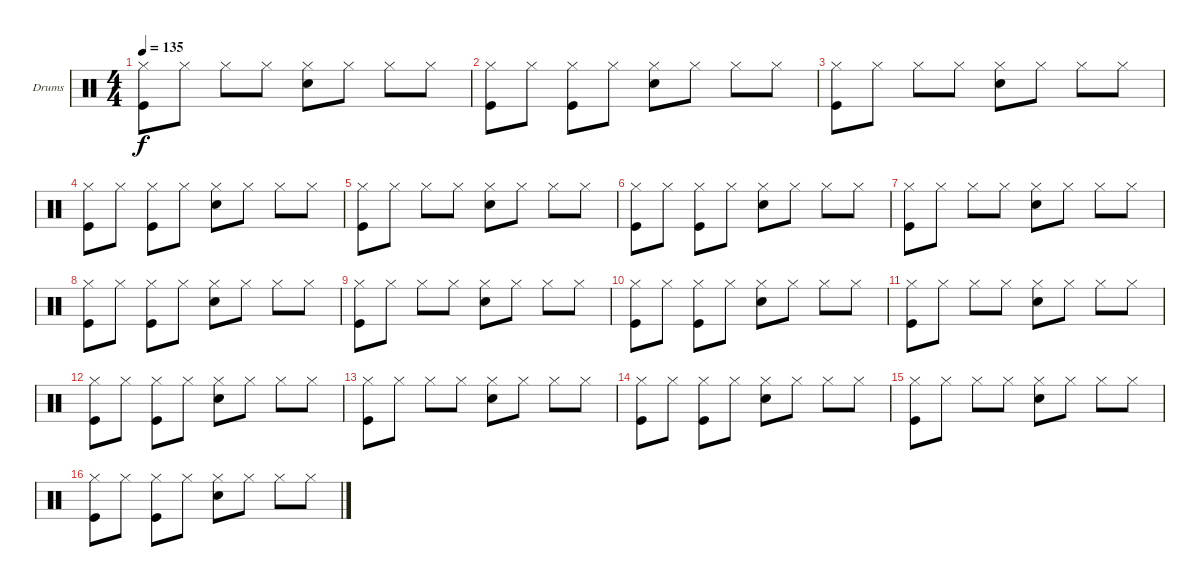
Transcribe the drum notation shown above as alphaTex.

\defaultSystemsLayout 4
\bracketExtendMode groupsimilarinstruments
\firstSystemTrackNameOrientation horizontal
\otherSystemsTrackNameOrientation horizontal
\track ("Drumkit" "Drums") {instrument percussion}
\staff {score}
\articulation defaults
\ts (4 4)
\tempo 135
\clef neutral
\ks c
("Kick (hit)" "Hi-Hat (closed)").8{dy f} "Hi-Hat (closed)".8 "Hi-Hat (closed)".8 "Hi-Hat (closed)".8 ("Hi-Hat (closed)" "Snare (hit) 2").8 "Hi-Hat (closed)".8 "Hi-Hat (closed)".8 "Hi-Hat (closed)".8 |
("Hi-Hat (closed)" "Kick (hit)").8 "Hi-Hat (closed)".8 ("Hi-Hat (closed)" "Kick (hit)").8 "Hi-Hat (closed)".8 ("Hi-Hat (closed)" "Snare (hit) 2").8 "Hi-Hat (closed)".8 "Hi-Hat (closed)".8 "Hi-Hat (closed)".8 |
("Kick (hit)" "Hi-Hat (closed)").8 "Hi-Hat (closed)".8 "Hi-Hat (closed)".8 "Hi-Hat (closed)".8 ("Hi-Hat (closed)" "Snare (hit) 2").8 "Hi-Hat (closed)".8 "Hi-Hat (closed)".8 "Hi-Hat (closed)".8 |
("Hi-Hat (closed)" "Kick (hit)").8 "Hi-Hat (closed)".8 ("Hi-Hat (closed)" "Kick (hit)").8 "Hi-Hat (closed)".8 ("Hi-Hat (closed)" "Snare (hit) 2").8 "Hi-Hat (closed)".8 "Hi-Hat (closed)".8 "Hi-Hat (closed)".8 |
("Kick (hit)" "Hi-Hat (closed)").8 "Hi-Hat (closed)".8 "Hi-Hat (closed)".8 "Hi-Hat (closed)".8 ("Hi-Hat (closed)" "Snare (hit) 2").8 "Hi-Hat (closed)".8 "Hi-Hat (closed)".8 "Hi-Hat (closed)".8 |
("Hi-Hat (closed)" "Kick (hit)").8 "Hi-Hat (closed)".8 ("Hi-Hat (closed)" "Kick (hit)").8 "Hi-Hat (closed)".8 ("Hi-Hat (closed)" "Snare (hit) 2").8 "Hi-Hat (closed)".8 "Hi-Hat (closed)".8 "Hi-Hat (closed)".8 |
("Kick (hit)" "Hi-Hat (closed)").8 "Hi-Hat (closed)".8 "Hi-Hat (closed)".8 "Hi-Hat (closed)".8 ("Hi-Hat (closed)" "Snare (hit) 2").8 "Hi-Hat (closed)".8 "Hi-Hat (closed)".8 "Hi-Hat (closed)".8 |
("Hi-Hat (closed)" "Kick (hit)").8 "Hi-Hat (closed)".8 ("Hi-Hat (closed)" "Kick (hit)").8 "Hi-Hat (closed)".8 ("Hi-Hat (closed)" "Snare (hit) 2").8 "Hi-Hat (closed)".8 "Hi-Hat (closed)".8 "Hi-Hat (closed)".8 |
("Kick (hit)" "Hi-Hat (closed)").8 "Hi-Hat (closed)".8 "Hi-Hat (closed)".8 "Hi-Hat (closed)".8 ("Hi-Hat (closed)" "Snare (hit) 2").8 "Hi-Hat (closed)".8 "Hi-Hat (closed)".8 "Hi-Hat (closed)".8 |
("Hi-Hat (closed)" "Kick (hit)").8 "Hi-Hat (closed)".8 ("Hi-Hat (closed)" "Kick (hit)").8 "Hi-Hat (closed)".8 ("Hi-Hat (closed)" "Snare (hit) 2").8 "Hi-Hat (closed)".8 "Hi-Hat (closed)".8 "Hi-Hat (closed)".8 |
("Kick (hit)" "Hi-Hat (closed)").8 "Hi-Hat (closed)".8 "Hi-Hat (closed)".8 "Hi-Hat (closed)".8 ("Hi-Hat (closed)" "Snare (hit) 2").8 "Hi-Hat (closed)".8 "Hi-Hat (closed)".8 "Hi-Hat (closed)".8 |
("Hi-Hat (closed)" "Kick (hit)").8 "Hi-Hat (closed)".8 ("Hi-Hat (closed)" "Kick (hit)").8 "Hi-Hat (closed)".8 ("Hi-Hat (closed)" "Snare (hit) 2").8 "Hi-Hat (closed)".8 "Hi-Hat (closed)".8 "Hi-Hat (closed)".8 |
("Kick (hit)" "Hi-Hat (closed)").8 "Hi-Hat (closed)".8 "Hi-Hat (closed)".8 "Hi-Hat (closed)".8 ("Hi-Hat (closed)" "Snare (hit) 2").8 "Hi-Hat (closed)".8 "Hi-Hat (closed)".8 "Hi-Hat (closed)".8 |
("Hi-Hat (closed)" "Kick (hit)").8 "Hi-Hat (closed)".8 ("Hi-Hat (closed)" "Kick (hit)").8 "Hi-Hat (closed)".8 ("Hi-Hat (closed)" "Snare (hit) 2").8 "Hi-Hat (closed)".8 "Hi-Hat (closed)".8 "Hi-Hat (closed)".8 |
("Kick (hit)" "Hi-Hat (closed)").8 "Hi-Hat (closed)".8 "Hi-Hat (closed)".8 "Hi-Hat (closed)".8 ("Hi-Hat (closed)" "Snare (hit) 2").8 "Hi-Hat (closed)".8 "Hi-Hat (closed)".8 "Hi-Hat (closed)".8 |
("Hi-Hat (closed)" "Kick (hit)").8 "Hi-Hat (closed)".8 ("Hi-Hat (closed)" "Kick (hit)").8 "Hi-Hat (closed)".8 ("Hi-Hat (closed)" "Snare (hit) 2").8 "Hi-Hat (closed)".8 "Hi-Hat (closed)".8 "Hi-Hat (closed)".8
